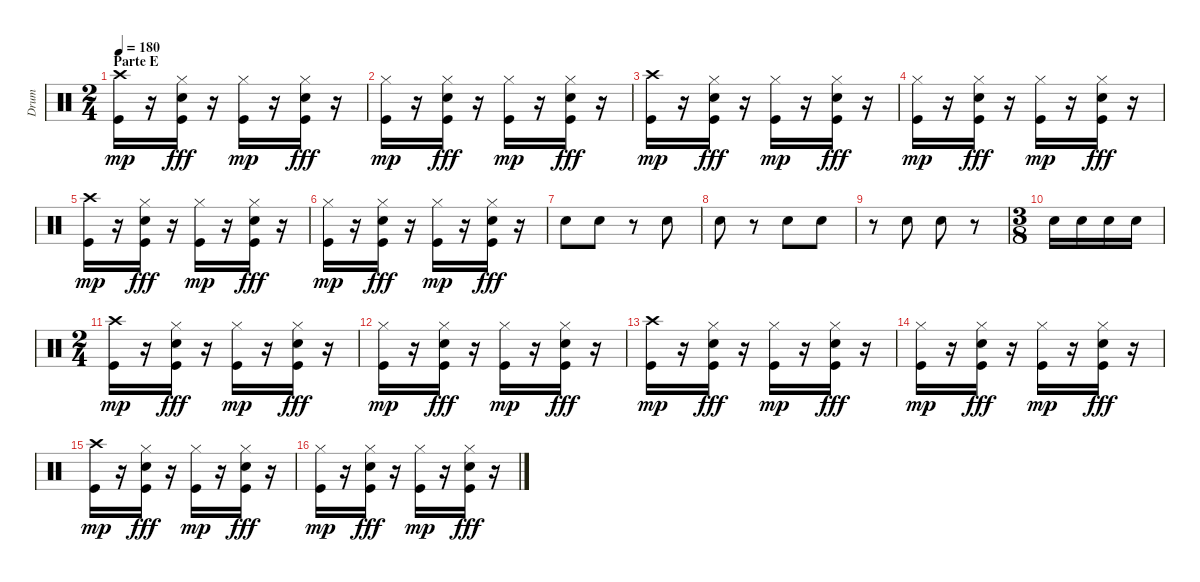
\track ("Drum" "Drum") {instrument percussion}
\staff {score}
\articulation defaults
\ts (2 4)
\section ("" "Parte E")
\tempo 180
\clef neutral
\ks c
("Crash high (hit)" "Kick (hit)").16{dy mp} r.16 ("Hi-Hat (closed)" "Snare (hit) 2" "Kick (hit)").16{dy fff} r.16 ("Hi-Hat (closed)" "Kick (hit)").16{dy mp} r.16 ("Hi-Hat (closed)" "Snare (hit) 2" "Kick (hit)").16{dy fff} r.16 |
("Hi-Hat (closed)" "Kick (hit)").16{dy mp} r.16 ("Hi-Hat (closed)" "Snare (hit) 2" "Kick (hit)").16{dy fff} r.16 ("Hi-Hat (closed)" "Kick (hit)").16{dy mp} r.16 ("Hi-Hat (closed)" "Snare (hit) 2" "Kick (hit)").16{dy fff} r.16 |
("Crash high (hit)" "Kick (hit)").16{dy mp} r.16 ("Hi-Hat (closed)" "Snare (hit) 2" "Kick (hit)").16{dy fff} r.16 ("Hi-Hat (closed)" "Kick (hit)").16{dy mp} r.16 ("Hi-Hat (closed)" "Snare (hit) 2" "Kick (hit)").16{dy fff} r.16 |
("Hi-Hat (closed)" "Kick (hit)").16{dy mp} r.16 ("Hi-Hat (closed)" "Snare (hit) 2" "Kick (hit)").16{dy fff} r.16 ("Hi-Hat (closed)" "Kick (hit)").16{dy mp} r.16 ("Hi-Hat (closed)" "Snare (hit) 2" "Kick (hit)").16{dy fff} r.16 |
("Crash high (hit)" "Kick (hit)").16{dy mp} r.16 ("Hi-Hat (closed)" "Snare (hit) 2" "Kick (hit)").16{dy fff} r.16 ("Hi-Hat (closed)" "Kick (hit)").16{dy mp} r.16 ("Hi-Hat (closed)" "Snare (hit) 2" "Kick (hit)").16{dy fff} r.16 |
("Hi-Hat (closed)" "Kick (hit)").16{dy mp} r.16 ("Hi-Hat (closed)" "Snare (hit) 2" "Kick (hit)").16{dy fff} r.16 ("Hi-Hat (closed)" "Kick (hit)").16{dy mp} r.16 ("Hi-Hat (closed)" "Snare (hit) 2" "Kick (hit)").16{dy fff} r.16 |
"Snare (hit) 2".8 "Snare (hit) 2".8 r.8 "Snare (hit) 2".8 |
"Snare (hit) 2".8 r.8 "Snare (hit) 2".8 "Snare (hit) 2".8 |
r.8 "Snare (hit) 2".8 "Snare (hit) 2".8 r.8 |
\ts (3 8)
"Snare (hit) 2".16 "Snare (hit) 2".16 "Snare (hit) 2".16 "Snare (hit) 2".16 |
\ts (2 4)
("Crash high (hit)" "Kick (hit)").16{dy mp} r.16 ("Hi-Hat (closed)" "Snare (hit) 2" "Kick (hit)").16{dy fff} r.16 ("Hi-Hat (closed)" "Kick (hit)").16{dy mp} r.16 ("Hi-Hat (closed)" "Snare (hit) 2" "Kick (hit)").16{dy fff} r.16 |
("Hi-Hat (closed)" "Kick (hit)").16{dy mp} r.16 ("Hi-Hat (closed)" "Snare (hit) 2" "Kick (hit)").16{dy fff} r.16 ("Hi-Hat (closed)" "Kick (hit)").16{dy mp} r.16 ("Hi-Hat (closed)" "Snare (hit) 2" "Kick (hit)").16{dy fff} r.16 |
("Crash high (hit)" "Kick (hit)").16{dy mp} r.16 ("Hi-Hat (closed)" "Snare (hit) 2" "Kick (hit)").16{dy fff} r.16 ("Hi-Hat (closed)" "Kick (hit)").16{dy mp} r.16 ("Hi-Hat (closed)" "Snare (hit) 2" "Kick (hit)").16{dy fff} r.16 |
("Hi-Hat (closed)" "Kick (hit)").16{dy mp} r.16 ("Hi-Hat (closed)" "Snare (hit) 2" "Kick (hit)").16{dy fff} r.16 ("Hi-Hat (closed)" "Kick (hit)").16{dy mp} r.16 ("Hi-Hat (closed)" "Snare (hit) 2" "Kick (hit)").16{dy fff} r.16 |
("Crash high (hit)" "Kick (hit)").16{dy mp} r.16 ("Hi-Hat (closed)" "Snare (hit) 2" "Kick (hit)").16{dy fff} r.16 ("Hi-Hat (closed)" "Kick (hit)").16{dy mp} r.16 ("Hi-Hat (closed)" "Snare (hit) 2" "Kick (hit)").16{dy fff} r.16 |
("Hi-Hat (closed)" "Kick (hit)").16{dy mp} r.16 ("Hi-Hat (closed)" "Snare (hit) 2" "Kick (hit)").16{dy fff} r.16 ("Hi-Hat (closed)" "Kick (hit)").16{dy mp} r.16 ("Hi-Hat (closed)" "Snare (hit) 2" "Kick (hit)").16{dy fff} r.16
